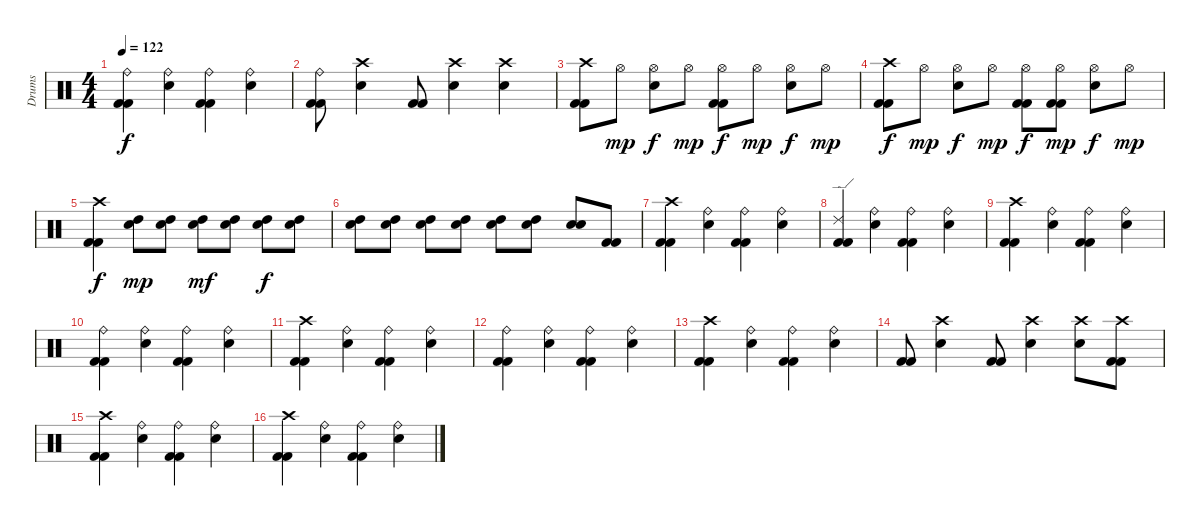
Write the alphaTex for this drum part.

\track ("Drums" "Drums") {instrument percussion}
\staff {score}
\articulation defaults
\ts (4 4)
\tempo 122
\clef neutral
\ks c
("Ride (bell)" "Kick (hit) 2" "Kick (hit) 2").4{dy f} ("Ride (bell)" "Snare (hit) 2").4 ("Ride (bell)" "Kick (hit) 2" "Kick (hit) 2").4 ("Ride (bell)" "Snare (hit) 2").4 |
("Ride (bell)" "Kick (hit) 2" "Kick (hit) 2").8 ("Crash high (hit)" "Snare (hit) 2").4 ("Kick (hit) 2" "Kick (hit) 2").8 ("Crash high (hit)" "Snare (hit) 2").4 ("Crash high (hit)" "Snare (hit) 2").4 |
("Crash high (hit)" "Kick (hit) 2" "Kick (hit) 2").8 "Hi-Hat (open)".8{dy mp} ("Hi-Hat (open)" "Snare (hit) 2").8{dy f} "Hi-Hat (open)".8{dy mp} ("Hi-Hat (open)" "Kick (hit) 2" "Kick (hit) 2").8{dy f} "Hi-Hat (open)".8{dy mp} ("Hi-Hat (open)" "Snare (hit) 2").8{dy f} "Hi-Hat (open)".8{dy mp} |
("Crash high (hit)" "Kick (hit) 2" "Kick (hit) 2").8{dy f} "Hi-Hat (open)".8{dy mp} ("Hi-Hat (open)" "Snare (hit) 2").8{dy f} "Hi-Hat (open)".8{dy mp} ("Hi-Hat (open)" "Kick (hit) 2" "Kick (hit) 2").8{dy f} ("Hi-Hat (open)" "Kick (hit) 2" "Kick (hit) 2").8{dy mp} ("Hi-Hat (open)" "Snare (hit) 2").8{dy f} "Hi-Hat (open)".8{dy mp} |
("Crash high (hit)" "Kick (hit) 2" "Kick (hit) 2").4{dy f} ("Snare (hit) 2" "High Tom (hit)").8{dy mp} ("Snare (hit) 2" "High Tom (hit)").8 ("Snare (hit) 2" "High Tom (hit)").8{dy mf} ("Snare (hit) 2" "High Tom (hit)").8 ("Snare (hit) 2" "High Tom (hit)").8{dy f} ("Snare (hit) 2" "High Tom (hit)").8 |
("Snare (hit) 2" "High Tom (hit)").8 ("Snare (hit) 2" "High Tom (hit)").8 ("Snare (hit) 2" "High Tom (hit)").8 ("Snare (hit) 2" "High Tom (hit)").8 ("Snare (hit) 2" "High Tom (hit)").8 ("Snare (hit) 2" "High Tom (hit)").8 ("Snare (hit) 2" "Snare (hit) 2").8 ("Kick (hit) 2" "Kick (hit) 2").8 |
("Crash high (hit)" "Kick (hit) 2" "Kick (hit) 2").4 ("Ride (bell)" "Snare (hit) 2").4 ("Ride (bell)" "Kick (hit) 2" "Kick (hit) 2").4 ("Ride (bell)" "Snare (hit) 2").4 |
("Ride (edge) 2" "Kick (hit) 2" "Kick (hit) 2").4 ("Ride (bell)" "Snare (hit) 2").4 ("Ride (bell)" "Kick (hit) 2" "Kick (hit) 2").4 ("Ride (bell)" "Snare (hit) 2").4 |
("Crash high (hit)" "Kick (hit) 2" "Kick (hit) 2").4 ("Ride (bell)" "Snare (hit) 2").4 ("Ride (bell)" "Kick (hit) 2" "Kick (hit) 2").4 ("Ride (bell)" "Snare (hit) 2").4 |
("Ride (bell)" "Kick (hit) 2" "Kick (hit) 2").4 ("Ride (bell)" "Snare (hit) 2").4 ("Ride (bell)" "Kick (hit) 2" "Kick (hit) 2").4 ("Ride (bell)" "Snare (hit) 2").4 |
("Crash high (hit)" "Kick (hit) 2" "Kick (hit) 2").4 ("Ride (bell)" "Snare (hit) 2").4 ("Ride (bell)" "Kick (hit) 2" "Kick (hit) 2").4 ("Ride (bell)" "Snare (hit) 2").4 |
("Ride (bell)" "Kick (hit) 2" "Kick (hit) 2").4 ("Ride (bell)" "Snare (hit) 2").4 ("Ride (bell)" "Kick (hit) 2" "Kick (hit) 2").4 ("Ride (bell)" "Snare (hit) 2").4 |
("Crash high (hit)" "Kick (hit) 2" "Kick (hit) 2").4 ("Ride (bell)" "Snare (hit) 2").4 ("Ride (bell)" "Kick (hit) 2" "Kick (hit) 2").4 ("Ride (bell)" "Snare (hit) 2").4 |
("Kick (hit) 2" "Kick (hit) 2").8 ("Crash high (hit)" "Snare (hit) 2").4 ("Kick (hit) 2" "Kick (hit) 2").8 ("Crash high (hit)" "Snare (hit) 2").4 ("Crash high (hit)" "Snare (hit) 2").8 ("Crash high (hit)" "Kick (hit) 2" "Kick (hit) 2").8 |
("Crash high (hit)" "Kick (hit) 2" "Kick (hit) 2").4 ("Ride (bell)" "Snare (hit) 2").4 ("Ride (bell)" "Kick (hit) 2" "Kick (hit) 2").4 ("Ride (bell)" "Snare (hit) 2").4 |
("Crash high (hit)" "Kick (hit) 2" "Kick (hit) 2").4 ("Ride (bell)" "Snare (hit) 2").4 ("Ride (bell)" "Kick (hit) 2" "Kick (hit) 2").4 ("Ride (bell)" "Snare (hit) 2").4
